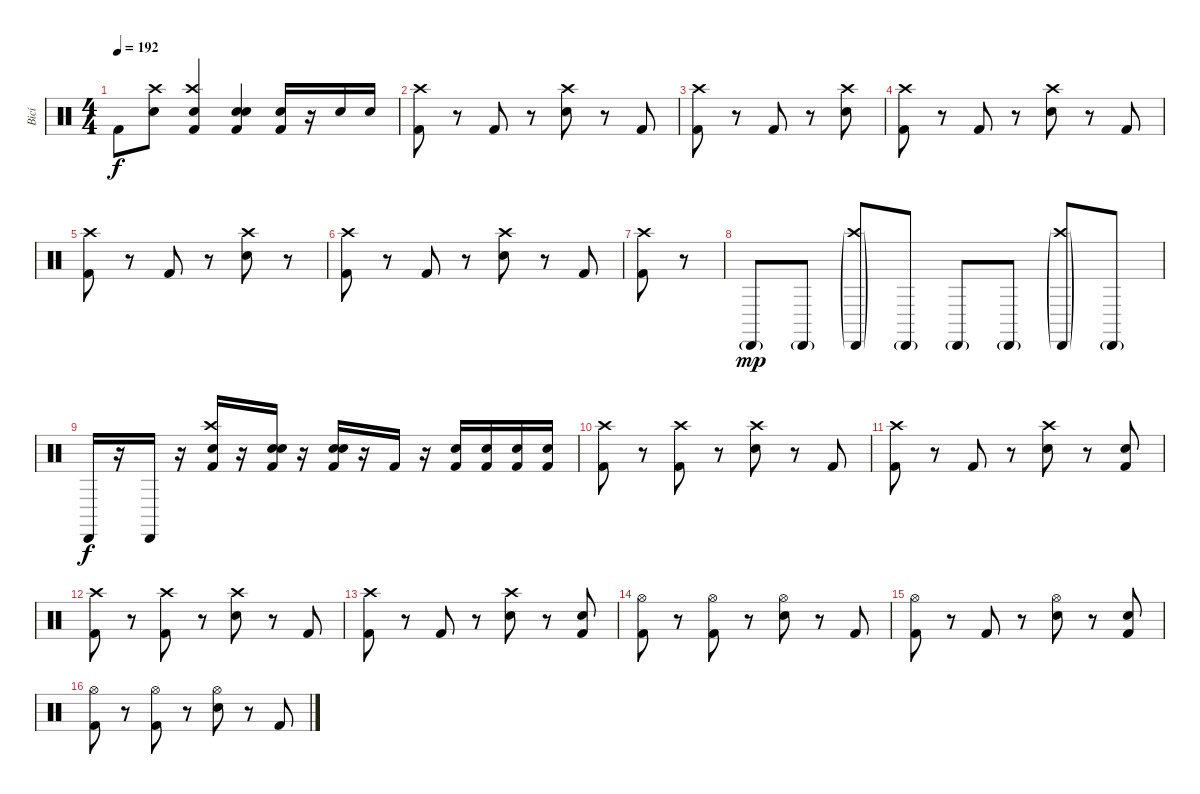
\track ("Bicí" "Bicí") {instrument percussion}
\staff {score}
\articulation defaults
\ts (4 4)
\tempo 192
\clef neutral
\ks c "Kick (hit) 2".8{dy f}
("Crash high (hit)" "Electric Snare (hit)").8 ("Crash high (hit)" "Electric Snare (hit)" "Kick (hit) 2").4 ("Electric Snare (hit)" "Electric Snare (hit)" "Kick (hit) 2").4 ("Electric Snare (hit)" "Kick (hit) 2").16 r.16 "Electric Snare (hit)".16 "Electric Snare (hit)".16 |
("Crash high (hit)" "Kick (hit) 2").8 r.8 "Kick (hit) 2".8 r.8 ("Crash high (hit)" "Electric Snare (hit)").8 r.8 "Kick (hit) 2".8 |
("Crash high (hit)" "Kick (hit) 2").8 r.8 "Kick (hit) 2".8 r.8 ("Crash high (hit)" "Electric Snare (hit)").8 |
("Crash high (hit)" "Kick (hit) 2").8 r.8 "Kick (hit) 2".8 r.8 ("Crash high (hit)" "Electric Snare (hit)").8 r.8 "Kick (hit) 2".8 |
("Crash high (hit)" "Kick (hit) 2").8 r.8 "Kick (hit) 2".8 r.8 ("Crash high (hit)" "Electric Snare (hit)").8 r.8 |
("Crash high (hit)" "Kick (hit) 2").8 r.8 "Kick (hit) 2".8 r.8 ("Crash high (hit)" "Electric Snare (hit)").8 r.8 "Kick (hit) 2".8 |
("Crash high (hit)" "Kick (hit) 2").8 r.8 |
"Cabasa (hit)"{g}.8{dy mp} "Cabasa (hit)"{g}.8 ("Crash high (hit)"{g} "Cabasa (hit)"{g}).8 "Cabasa (hit)"{g}.8 "Cabasa (hit)"{g}.8 "Cabasa (hit)"{g}.8 ("Crash high (hit)"{g} "Cabasa (hit)"{g}).8 "Cabasa (hit)"{g}.8 |
"Cabasa (hit)".16{dy f} r.16 "Cabasa (hit)".16 r.16 ("Crash high (hit)" "Electric Snare (hit)" "Kick (hit) 2").16 r.16 ("Electric Snare (hit)" "Electric Snare (hit)" "Kick (hit) 2").16 r.16 ("Electric Snare (hit)" "Electric Snare (hit)" "Kick (hit) 2").16 r.16 "Kick (hit) 2".16 r.16 ("Electric Snare (hit)" "Kick (hit) 2").16 ("Electric Snare (hit)" "Kick (hit) 2").16 ("Electric Snare (hit)" "Kick (hit) 2").16 ("Electric Snare (hit)" "Kick (hit) 2").16 |
("Crash high (hit)" "Kick (hit) 2").8 r.8 ("Crash high (hit)" "Kick (hit) 2").8 r.8 ("Crash high (hit)" "Electric Snare (hit)").8 r.8 "Kick (hit) 2".8 |
("Crash high (hit)" "Kick (hit) 2").8 r.8 "Kick (hit) 2".8 r.8 ("Crash high (hit)" "Electric Snare (hit)").8 r.8 ("Electric Snare (hit)" "Kick (hit) 2").8 |
("Crash high (hit)" "Kick (hit) 2").8 r.8 ("Crash high (hit)" "Kick (hit) 2").8 r.8 ("Crash high (hit)" "Electric Snare (hit)").8 r.8 "Kick (hit) 2".8 |
("Crash high (hit)" "Kick (hit) 2").8 r.8 "Kick (hit) 2".8 r.8 ("Crash high (hit)" "Electric Snare (hit)").8 r.8 ("Electric Snare (hit)" "Kick (hit) 2").8 |
("Hi-Hat (open)" "Kick (hit) 2").8 r.8 ("Hi-Hat (open)" "Kick (hit) 2").8 r.8 ("Hi-Hat (open)" "Electric Snare (hit)").8 r.8 "Kick (hit) 2".8 |
("Hi-Hat (open)" "Kick (hit) 2").8 r.8 "Kick (hit) 2".8 r.8 ("Hi-Hat (open)" "Electric Snare (hit)").8 r.8 ("Electric Snare (hit)" "Kick (hit) 2").8 |
("Hi-Hat (open)" "Kick (hit) 2").8 r.8 ("Hi-Hat (open)" "Kick (hit) 2").8 r.8 ("Hi-Hat (open)" "Electric Snare (hit)").8 r.8 "Kick (hit) 2".8
